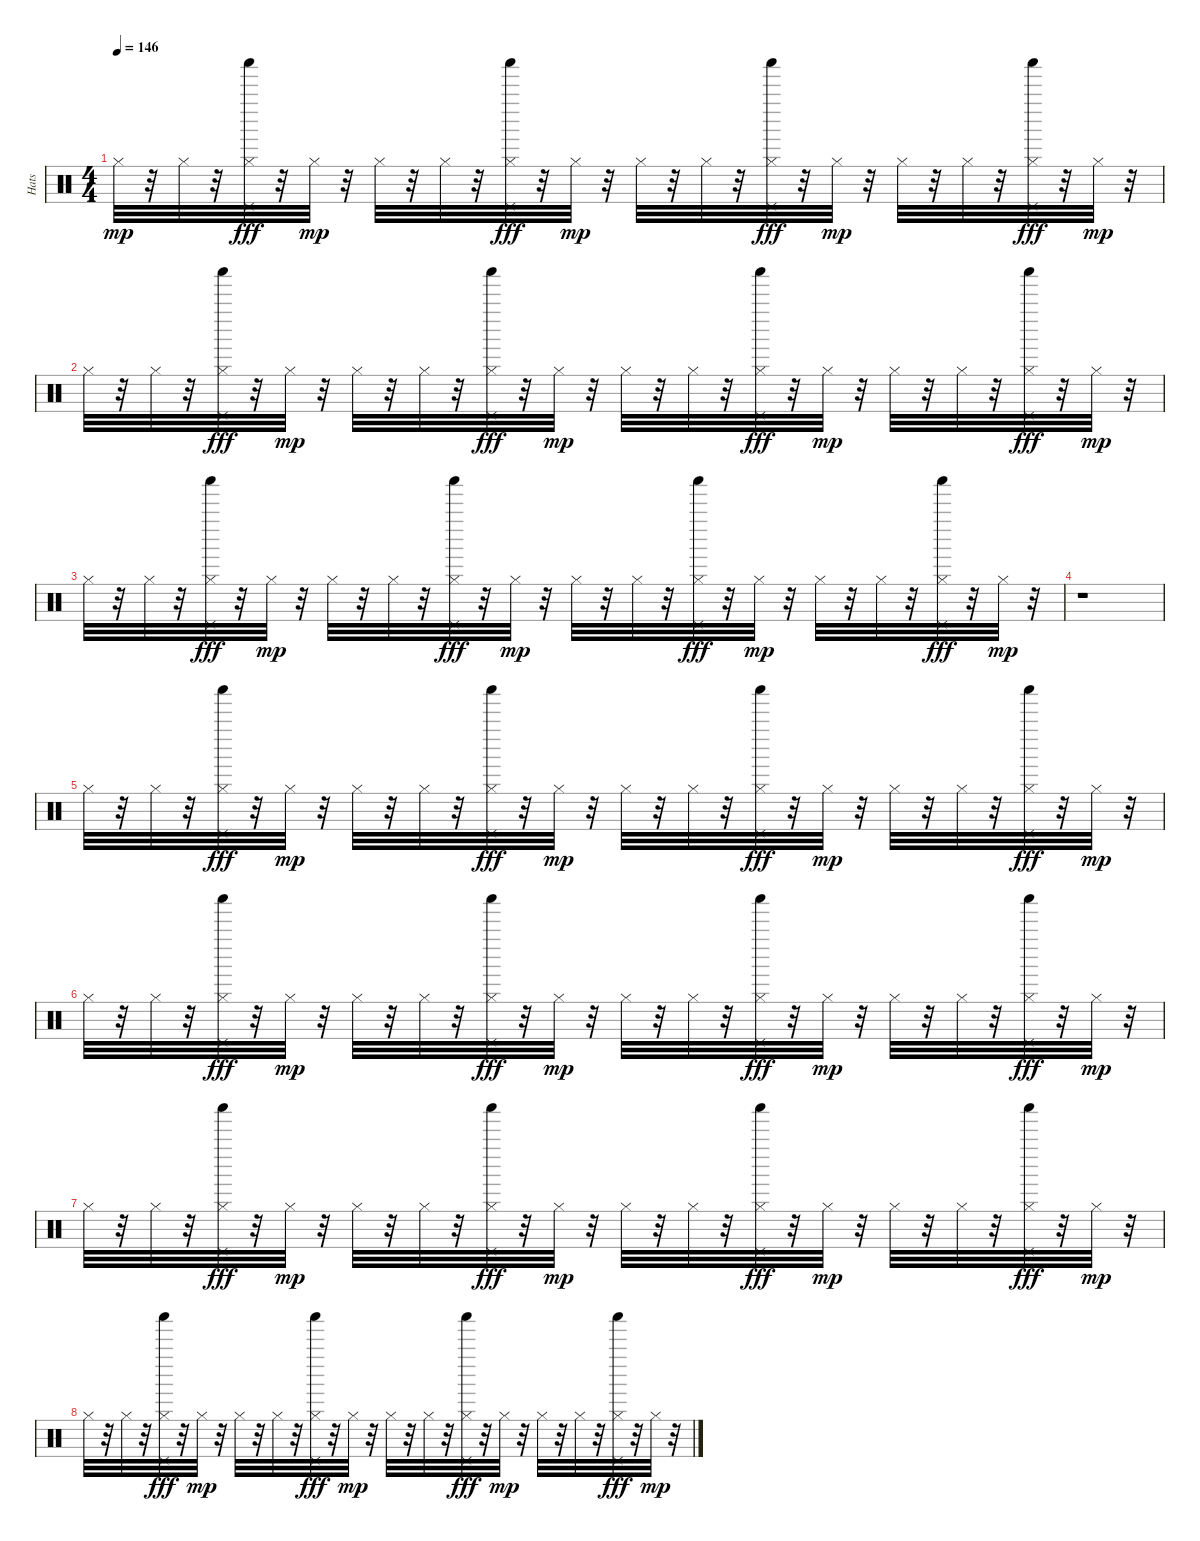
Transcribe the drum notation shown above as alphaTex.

\track ("Hats" "Hats") {instrument percussion}
\staff {score}
\articulation defaults
\ts (4 4)
\tempo 146
\clef neutral
\ks c "Hi-Hat (closed)".32{dy mp}
r.32 "Hi-Hat (closed)".32 r.32 ("Hi-Hat (closed)" "Pedal Hi-Hat (hit)" "Shaker (hit)").32{dy fff} r.32 "Hi-Hat (closed)".32{dy mp} r.32 "Hi-Hat (closed)".32 r.32 "Hi-Hat (closed)".32 r.32 ("Hi-Hat (closed)" "Pedal Hi-Hat (hit)" "Shaker (hit)").32{dy fff} r.32 "Hi-Hat (closed)".32{dy mp} r.32 "Hi-Hat (closed)".32 r.32 "Hi-Hat (closed)".32 r.32 ("Hi-Hat (closed)" "Pedal Hi-Hat (hit)" "Shaker (hit)").32{dy fff} r.32 "Hi-Hat (closed)".32{dy mp} r.32 "Hi-Hat (closed)".32 r.32 "Hi-Hat (closed)".32 r.32 ("Hi-Hat (closed)" "Pedal Hi-Hat (hit)" "Shaker (hit)").32{dy fff} r.32 "Hi-Hat (closed)".32{dy mp} r.32 |
"Hi-Hat (closed)".32 r.32 "Hi-Hat (closed)".32 r.32 ("Hi-Hat (closed)" "Pedal Hi-Hat (hit)" "Shaker (hit)").32{dy fff} r.32 "Hi-Hat (closed)".32{dy mp} r.32 "Hi-Hat (closed)".32 r.32 "Hi-Hat (closed)".32 r.32 ("Hi-Hat (closed)" "Pedal Hi-Hat (hit)" "Shaker (hit)").32{dy fff} r.32 "Hi-Hat (closed)".32{dy mp} r.32 "Hi-Hat (closed)".32 r.32 "Hi-Hat (closed)".32 r.32 ("Hi-Hat (closed)" "Pedal Hi-Hat (hit)" "Shaker (hit)").32{dy fff} r.32 "Hi-Hat (closed)".32{dy mp} r.32 "Hi-Hat (closed)".32 r.32 "Hi-Hat (closed)".32 r.32 ("Hi-Hat (closed)" "Pedal Hi-Hat (hit)" "Shaker (hit)").32{dy fff} r.32 "Hi-Hat (closed)".32{dy mp} r.32 |
"Hi-Hat (closed)".32 r.32 "Hi-Hat (closed)".32 r.32 ("Hi-Hat (closed)" "Pedal Hi-Hat (hit)" "Shaker (hit)").32{dy fff} r.32 "Hi-Hat (closed)".32{dy mp} r.32 "Hi-Hat (closed)".32 r.32 "Hi-Hat (closed)".32 r.32 ("Hi-Hat (closed)" "Pedal Hi-Hat (hit)" "Shaker (hit)").32{dy fff} r.32 "Hi-Hat (closed)".32{dy mp} r.32 "Hi-Hat (closed)".32 r.32 "Hi-Hat (closed)".32 r.32 ("Hi-Hat (closed)" "Pedal Hi-Hat (hit)" "Shaker (hit)").32{dy fff} r.32 "Hi-Hat (closed)".32{dy mp} r.32 "Hi-Hat (closed)".32 r.32 "Hi-Hat (closed)".32 r.32 ("Hi-Hat (closed)" "Pedal Hi-Hat (hit)" "Shaker (hit)").32{dy fff} r.32 "Hi-Hat (closed)".32{dy mp} r.32 |
r.1 |
"Hi-Hat (closed)".32 r.32 "Hi-Hat (closed)".32 r.32 ("Hi-Hat (closed)" "Pedal Hi-Hat (hit)" "Shaker (hit)").32{dy fff} r.32 "Hi-Hat (closed)".32{dy mp} r.32 "Hi-Hat (closed)".32 r.32 "Hi-Hat (closed)".32 r.32 ("Hi-Hat (closed)" "Pedal Hi-Hat (hit)" "Shaker (hit)").32{dy fff} r.32 "Hi-Hat (closed)".32{dy mp} r.32 "Hi-Hat (closed)".32 r.32 "Hi-Hat (closed)".32 r.32 ("Hi-Hat (closed)" "Pedal Hi-Hat (hit)" "Shaker (hit)").32{dy fff} r.32 "Hi-Hat (closed)".32{dy mp} r.32 "Hi-Hat (closed)".32 r.32 "Hi-Hat (closed)".32 r.32 ("Hi-Hat (closed)" "Pedal Hi-Hat (hit)" "Shaker (hit)").32{dy fff} r.32 "Hi-Hat (closed)".32{dy mp} r.32 |
"Hi-Hat (closed)".32 r.32 "Hi-Hat (closed)".32 r.32 ("Hi-Hat (closed)" "Pedal Hi-Hat (hit)" "Shaker (hit)").32{dy fff} r.32 "Hi-Hat (closed)".32{dy mp} r.32 "Hi-Hat (closed)".32 r.32 "Hi-Hat (closed)".32 r.32 ("Hi-Hat (closed)" "Pedal Hi-Hat (hit)" "Shaker (hit)").32{dy fff} r.32 "Hi-Hat (closed)".32{dy mp} r.32 "Hi-Hat (closed)".32 r.32 "Hi-Hat (closed)".32 r.32 ("Hi-Hat (closed)" "Pedal Hi-Hat (hit)" "Shaker (hit)").32{dy fff} r.32 "Hi-Hat (closed)".32{dy mp} r.32 "Hi-Hat (closed)".32 r.32 "Hi-Hat (closed)".32 r.32 ("Hi-Hat (closed)" "Pedal Hi-Hat (hit)" "Shaker (hit)").32{dy fff} r.32 "Hi-Hat (closed)".32{dy mp} r.32 |
"Hi-Hat (closed)".32 r.32 "Hi-Hat (closed)".32 r.32 ("Hi-Hat (closed)" "Pedal Hi-Hat (hit)" "Shaker (hit)").32{dy fff} r.32 "Hi-Hat (closed)".32{dy mp} r.32 "Hi-Hat (closed)".32 r.32 "Hi-Hat (closed)".32 r.32 ("Hi-Hat (closed)" "Pedal Hi-Hat (hit)" "Shaker (hit)").32{dy fff} r.32 "Hi-Hat (closed)".32{dy mp} r.32 "Hi-Hat (closed)".32 r.32 "Hi-Hat (closed)".32 r.32 ("Hi-Hat (closed)" "Pedal Hi-Hat (hit)" "Shaker (hit)").32{dy fff} r.32 "Hi-Hat (closed)".32{dy mp} r.32 "Hi-Hat (closed)".32 r.32 "Hi-Hat (closed)".32 r.32 ("Hi-Hat (closed)" "Pedal Hi-Hat (hit)" "Shaker (hit)").32{dy fff} r.32 "Hi-Hat (closed)".32{dy mp} r.32 |
"Hi-Hat (closed)".32 r.32 "Hi-Hat (closed)".32 r.32 ("Hi-Hat (closed)" "Pedal Hi-Hat (hit)" "Shaker (hit)").32{dy fff} r.32 "Hi-Hat (closed)".32{dy mp} r.32 "Hi-Hat (closed)".32 r.32 "Hi-Hat (closed)".32 r.32 ("Hi-Hat (closed)" "Pedal Hi-Hat (hit)" "Shaker (hit)").32{dy fff} r.32 "Hi-Hat (closed)".32{dy mp} r.32 "Hi-Hat (closed)".32 r.32 "Hi-Hat (closed)".32 r.32 ("Hi-Hat (closed)" "Pedal Hi-Hat (hit)" "Shaker (hit)").32{dy fff} r.32 "Hi-Hat (closed)".32{dy mp} r.32 "Hi-Hat (closed)".32 r.32 "Hi-Hat (closed)".32 r.32 ("Hi-Hat (closed)" "Pedal Hi-Hat (hit)" "Shaker (hit)").32{dy fff} r.32 "Hi-Hat (closed)".32{dy mp} r.32
